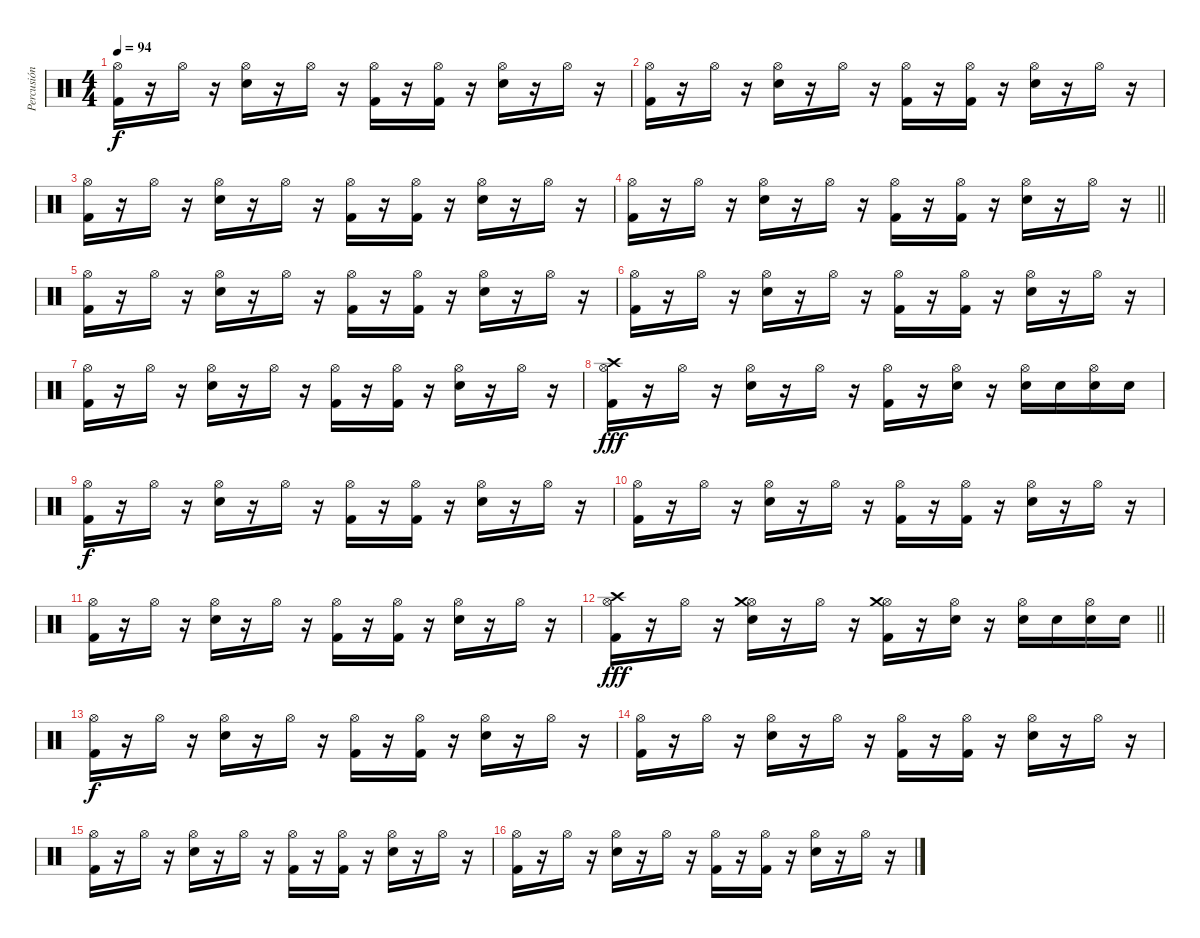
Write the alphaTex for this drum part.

\track ("Percusión" "Percusión") {instrument percussion}
\staff {score}
\articulation defaults
\ts (4 4)
\tempo 94
\clef neutral
\ks c
("Hi-Hat (open)" "Kick (hit) 2").16{dy f} r.16 "Hi-Hat (open)".16 r.16 ("Hi-Hat (open)" "Electric Snare (hit)").16 r.16 "Hi-Hat (open)".16 r.16 ("Hi-Hat (open)" "Kick (hit) 2").16 r.16 ("Hi-Hat (open)" "Kick (hit) 2").16 r.16 ("Hi-Hat (open)" "Electric Snare (hit)").16 r.16 "Hi-Hat (open)".16 r.16 |
("Hi-Hat (open)" "Kick (hit) 2").16 r.16 "Hi-Hat (open)".16 r.16 ("Hi-Hat (open)" "Electric Snare (hit)").16 r.16 "Hi-Hat (open)".16 r.16 ("Hi-Hat (open)" "Kick (hit) 2").16 r.16 ("Hi-Hat (open)" "Kick (hit) 2").16 r.16 ("Hi-Hat (open)" "Electric Snare (hit)").16 r.16 "Hi-Hat (open)".16 r.16 |
("Hi-Hat (open)" "Kick (hit) 2").16 r.16 "Hi-Hat (open)".16 r.16 ("Hi-Hat (open)" "Electric Snare (hit)").16 r.16 "Hi-Hat (open)".16 r.16 ("Hi-Hat (open)" "Kick (hit) 2").16 r.16 ("Hi-Hat (open)" "Kick (hit) 2").16 r.16 ("Hi-Hat (open)" "Electric Snare (hit)").16 r.16 "Hi-Hat (open)".16 r.16 |
\barLineRight lightlight
("Hi-Hat (open)" "Kick (hit) 2").16 r.16 "Hi-Hat (open)".16 r.16 ("Hi-Hat (open)" "Electric Snare (hit)").16 r.16 "Hi-Hat (open)".16 r.16 ("Hi-Hat (open)" "Kick (hit) 2").16 r.16 ("Hi-Hat (open)" "Kick (hit) 2").16 r.16 ("Hi-Hat (open)" "Electric Snare (hit)").16 r.16 "Hi-Hat (open)".16 r.16 |
("Hi-Hat (open)" "Kick (hit) 2").16 r.16 "Hi-Hat (open)".16 r.16 ("Hi-Hat (open)" "Electric Snare (hit)").16 r.16 "Hi-Hat (open)".16 r.16 ("Hi-Hat (open)" "Kick (hit) 2").16 r.16 ("Hi-Hat (open)" "Kick (hit) 2").16 r.16 ("Hi-Hat (open)" "Electric Snare (hit)").16 r.16 "Hi-Hat (open)".16 r.16 |
("Hi-Hat (open)" "Kick (hit) 2").16 r.16 "Hi-Hat (open)".16 r.16 ("Hi-Hat (open)" "Electric Snare (hit)").16 r.16 "Hi-Hat (open)".16 r.16 ("Hi-Hat (open)" "Kick (hit) 2").16 r.16 ("Hi-Hat (open)" "Kick (hit) 2").16 r.16 ("Hi-Hat (open)" "Electric Snare (hit)").16 r.16 "Hi-Hat (open)".16 r.16 |
("Hi-Hat (open)" "Kick (hit) 2").16 r.16 "Hi-Hat (open)".16 r.16 ("Hi-Hat (open)" "Electric Snare (hit)").16 r.16 "Hi-Hat (open)".16 r.16 ("Hi-Hat (open)" "Kick (hit) 2").16 r.16 ("Hi-Hat (open)" "Kick (hit) 2").16 r.16 ("Hi-Hat (open)" "Electric Snare (hit)").16 r.16 "Hi-Hat (open)".16 r.16 |
("Hi-Hat (open)" "Kick (hit) 2" "Crash high (hit)").16{dy fff} r.16 "Hi-Hat (open)".16 r.16 ("Hi-Hat (open)" "Electric Snare (hit)").16 r.16 "Hi-Hat (open)".16 r.16 ("Hi-Hat (open)" "Kick (hit) 2").16 r.16 ("Hi-Hat (open)" "Electric Snare (hit)").16 r.16 ("Hi-Hat (open)" "Electric Snare (hit)").16 "Electric Snare (hit)".16 ("Hi-Hat (open)" "Electric Snare (hit)").16 "Electric Snare (hit)".16 |
("Hi-Hat (open)" "Kick (hit) 2").16{dy f} r.16 "Hi-Hat (open)".16 r.16 ("Hi-Hat (open)" "Electric Snare (hit)").16 r.16 "Hi-Hat (open)".16 r.16 ("Hi-Hat (open)" "Kick (hit) 2").16 r.16 ("Hi-Hat (open)" "Kick (hit) 2").16 r.16 ("Hi-Hat (open)" "Electric Snare (hit)").16 r.16 "Hi-Hat (open)".16 r.16 |
("Hi-Hat (open)" "Kick (hit) 2").16 r.16 "Hi-Hat (open)".16 r.16 ("Hi-Hat (open)" "Electric Snare (hit)").16 r.16 "Hi-Hat (open)".16 r.16 ("Hi-Hat (open)" "Kick (hit) 2").16 r.16 ("Hi-Hat (open)" "Kick (hit) 2").16 r.16 ("Hi-Hat (open)" "Electric Snare (hit)").16 r.16 "Hi-Hat (open)".16 r.16 |
("Hi-Hat (open)" "Kick (hit) 2").16 r.16 "Hi-Hat (open)".16 r.16 ("Hi-Hat (open)" "Electric Snare (hit)").16 r.16 "Hi-Hat (open)".16 r.16 ("Hi-Hat (open)" "Kick (hit) 2").16 r.16 ("Hi-Hat (open)" "Kick (hit) 2").16 r.16 ("Hi-Hat (open)" "Electric Snare (hit)").16 r.16 "Hi-Hat (open)".16 r.16 |
\barLineRight lightlight
("Hi-Hat (open)" "Kick (hit) 2" "Crash high (hit)").16{dy fff} r.16 "Hi-Hat (open)".16 r.16 ("Hi-Hat (open)" "Electric Snare (hit)" "Crash medium (hit)").16 r.16 "Hi-Hat (open)".16 r.16 ("Hi-Hat (open)" "Kick (hit) 2" "Crash medium (hit)").16 r.16 ("Hi-Hat (open)" "Electric Snare (hit)").16 r.16 ("Hi-Hat (open)" "Electric Snare (hit)").16 "Electric Snare (hit)".16 ("Hi-Hat (open)" "Electric Snare (hit)").16 "Electric Snare (hit)".16 |
("Hi-Hat (open)" "Kick (hit) 2").16{dy f} r.16 "Hi-Hat (open)".16 r.16 ("Hi-Hat (open)" "Electric Snare (hit)").16 r.16 "Hi-Hat (open)".16 r.16 ("Hi-Hat (open)" "Kick (hit) 2").16 r.16 ("Hi-Hat (open)" "Kick (hit) 2").16 r.16 ("Hi-Hat (open)" "Electric Snare (hit)").16 r.16 "Hi-Hat (open)".16 r.16 |
("Hi-Hat (open)" "Kick (hit) 2").16 r.16 "Hi-Hat (open)".16 r.16 ("Hi-Hat (open)" "Electric Snare (hit)").16 r.16 "Hi-Hat (open)".16 r.16 ("Hi-Hat (open)" "Kick (hit) 2").16 r.16 ("Hi-Hat (open)" "Kick (hit) 2").16 r.16 ("Hi-Hat (open)" "Electric Snare (hit)").16 r.16 "Hi-Hat (open)".16 r.16 |
("Hi-Hat (open)" "Kick (hit) 2").16 r.16 "Hi-Hat (open)".16 r.16 ("Hi-Hat (open)" "Electric Snare (hit)").16 r.16 "Hi-Hat (open)".16 r.16 ("Hi-Hat (open)" "Kick (hit) 2").16 r.16 ("Hi-Hat (open)" "Kick (hit) 2").16 r.16 ("Hi-Hat (open)" "Electric Snare (hit)").16 r.16 "Hi-Hat (open)".16 r.16 |
("Hi-Hat (open)" "Kick (hit) 2").16 r.16 "Hi-Hat (open)".16 r.16 ("Hi-Hat (open)" "Electric Snare (hit)").16 r.16 "Hi-Hat (open)".16 r.16 ("Hi-Hat (open)" "Kick (hit) 2").16 r.16 ("Hi-Hat (open)" "Kick (hit) 2").16 r.16 ("Hi-Hat (open)" "Electric Snare (hit)").16 r.16 "Hi-Hat (open)".16 r.16
